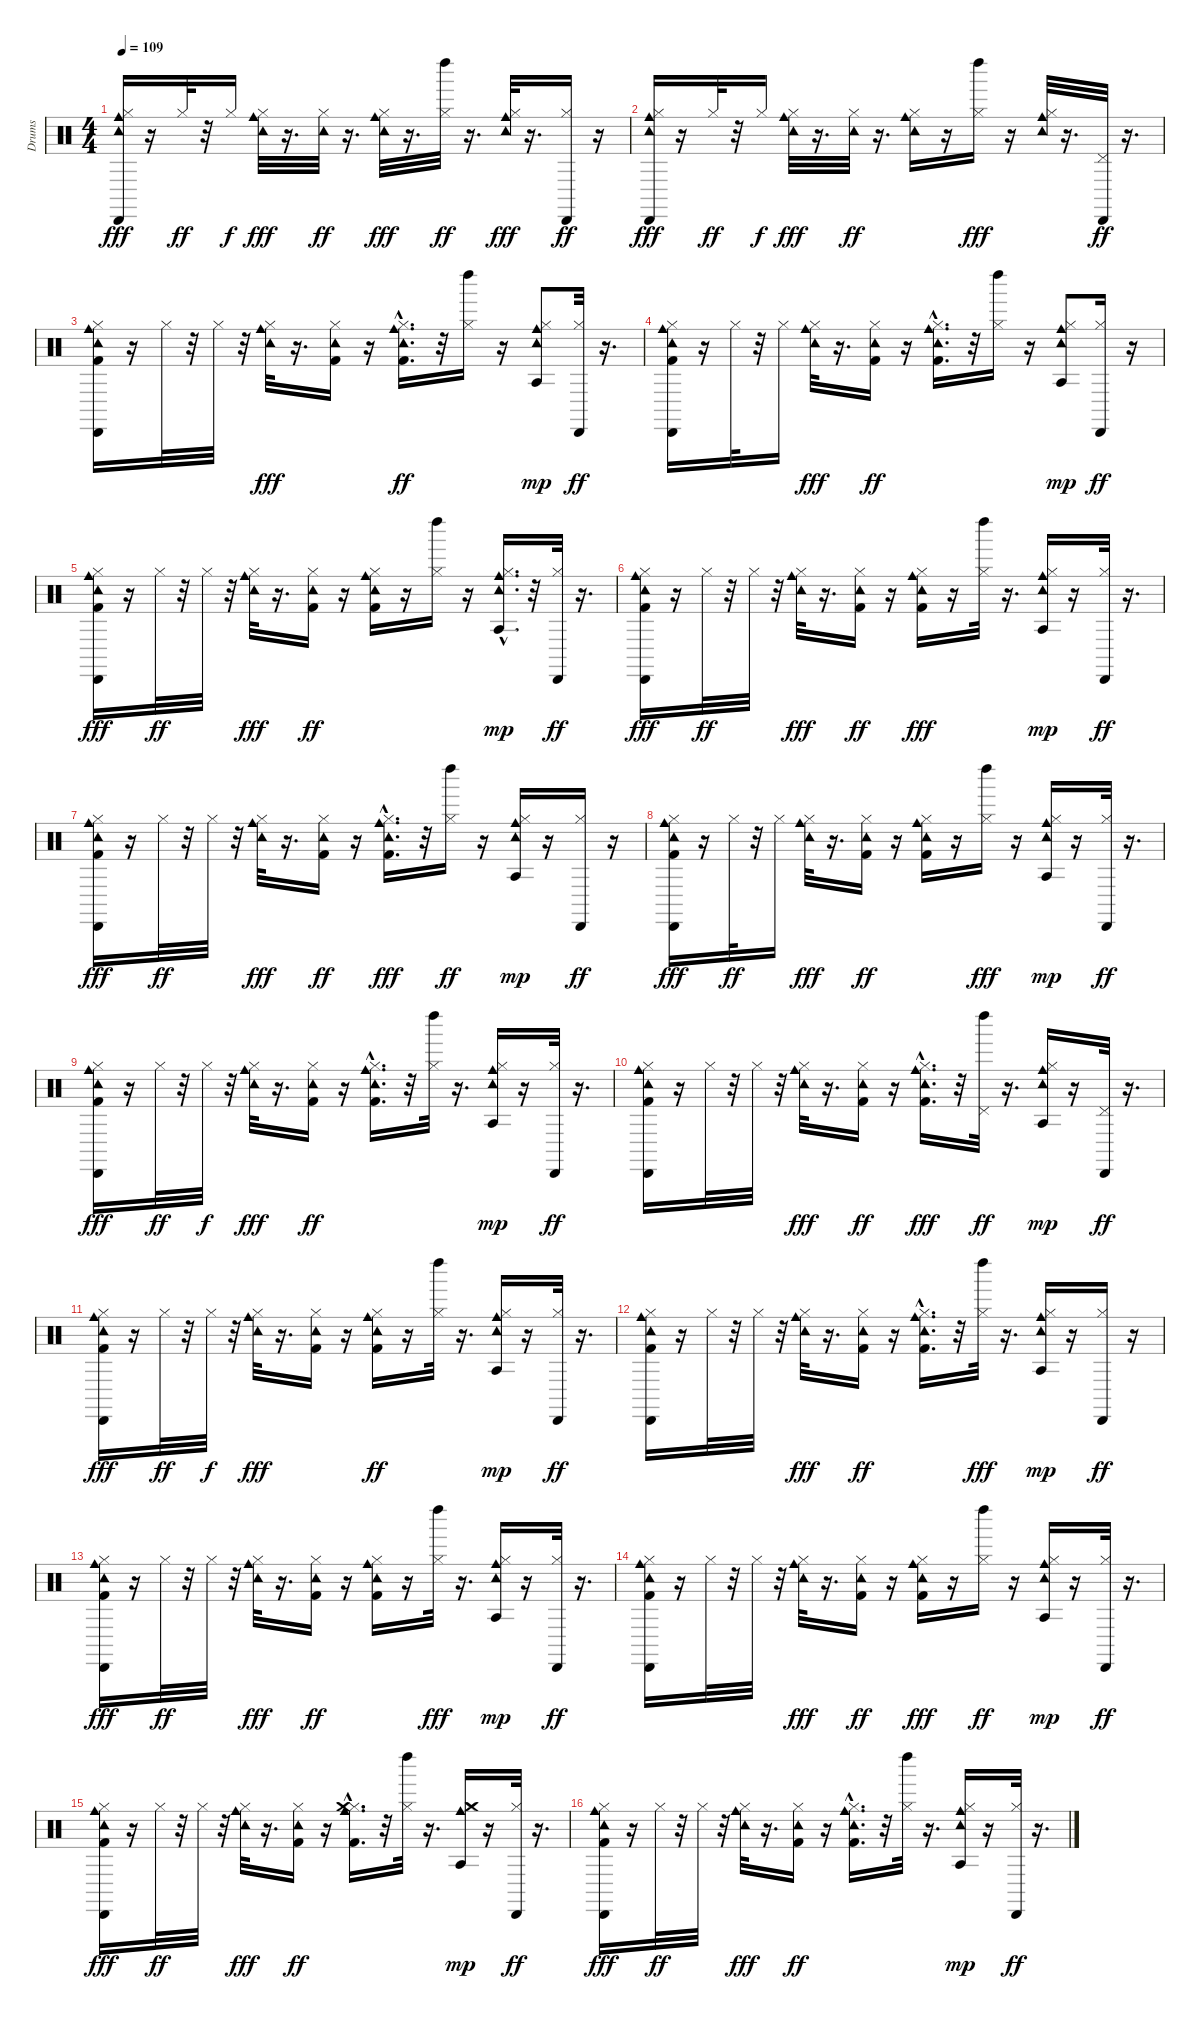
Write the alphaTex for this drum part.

\track ("Drums   " "Drums   ") {instrument percussion}
\staff {score}
\articulation defaults
\ts (4 4)
\tempo 109
\clef neutral
\ks c
("Hi-Hat (closed)" "Cowbell medium (hit)" "Tambourine (hit)" "Cabasa (hit)").16{dy fff} r.16 "Hi-Hat (closed)".32{dy ff} r.32 "Hi-Hat (closed)".16{dy f} ("Hi-Hat (closed)" "Tambourine (hit)" "Cowbell medium (hit)").32{dy fff} r.16{d} ("Hi-Hat (closed)" "Tambourine (hit)").32{dy ff} r.16{d} ("Hi-Hat (closed)" "Tambourine (hit)" "Cowbell medium (hit)").32{dy fff} r.16{d} ("Hi-Hat (closed)" "Left Maraca (hit)").32{dy ff} r.16{d} ("Hi-Hat (closed)" "Tambourine (hit)" "Cowbell medium (hit)").32{dy fff} r.16{d} ("Hi-Hat (closed)" "Cabasa (hit)").16{dy ff} r.16 |
("Hi-Hat (closed)" "Cowbell medium (hit)" "Tambourine (hit)" "Cabasa (hit)").16{dy fff} r.16 "Hi-Hat (closed)".32{dy ff} r.32 "Hi-Hat (closed)".16{dy f} ("Hi-Hat (closed)" "Tambourine (hit)" "Cowbell medium (hit)").32{dy fff} r.16{d} ("Hi-Hat (closed)" "Tambourine (hit)").32{dy ff} r.16{d} ("Hi-Hat (closed)" "Cowbell medium (hit)" "Tambourine (hit)").16 r.16 ("Hi-Hat (closed)" "Left Maraca (hit)").16{dy fff} r.16 ("Hi-Hat (closed)" "Tambourine (hit)" "Cowbell medium (hit)").32 r.16{d} ("Pedal Hi-Hat (hit)" "Cabasa (hit)").32{dy ff} r.16{d} |
("Kick (hit) 2" "Hi-Hat (closed)" "Cowbell medium (hit)" "Tambourine (hit)" "Cabasa (hit)").16 r.16 "Hi-Hat (closed)".32 r.32 "Hi-Hat (closed)".32 r.32 ("Hi-Hat (closed)" "Tambourine (hit)" "Cowbell medium (hit)").32{dy fff} r.16{d} ("Kick (hit) 2" "Hi-Hat (closed)" "Tambourine (hit)").16 r.16 ("Kick (hit) 2"{hac} "Cowbell medium (hit)"{hac} "Hi-Hat (closed)"{hac} "Tambourine (hit)"{hac}).16{d dy ff} r.32 ("Hi-Hat (closed)" "Left Maraca (hit)").16 r.16 ("Hi-Hat (closed)" "Tambourine (hit)" "Cowbell medium (hit)" "Agogo tow (hit)").8{dy mp} ("Hi-Hat (closed)" "Cabasa (hit)").32{dy ff} r.16{d} |
("Kick (hit) 2" "Hi-Hat (closed)" "Cowbell medium (hit)" "Tambourine (hit)" "Cabasa (hit)").16 r.16 "Hi-Hat (closed)".32 r.32 "Hi-Hat (closed)".16 ("Hi-Hat (closed)" "Tambourine (hit)" "Cowbell medium (hit)").32{dy fff} r.16{d} ("Kick (hit) 2" "Hi-Hat (closed)" "Tambourine (hit)").16{dy ff} r.16 ("Kick (hit) 2"{hac} "Hi-Hat (closed)"{hac} "Cowbell medium (hit)"{hac} "Tambourine (hit)"{hac}).16{d} r.32 ("Hi-Hat (closed)" "Left Maraca (hit)").16 r.16 ("Hi-Hat (closed)" "Tambourine (hit)" "Cowbell medium (hit)" "Agogo tow (hit)").8{dy mp} ("Hi-Hat (closed)" "Cabasa (hit)").16{dy ff} r.16 |
("Kick (hit) 2" "Cowbell medium (hit)" "Hi-Hat (closed)" "Tambourine (hit)" "Cabasa (hit)").16{dy fff} r.16 "Hi-Hat (closed)".32{dy ff} r.32 "Hi-Hat (closed)".32 r.32 ("Hi-Hat (closed)" "Tambourine (hit)" "Cowbell medium (hit)").32{dy fff} r.16{d} ("Kick (hit) 2" "Hi-Hat (closed)" "Tambourine (hit)").16{dy ff} r.16 ("Cowbell medium (hit)" "Kick (hit) 2" "Hi-Hat (closed)" "Tambourine (hit)").16 r.16 ("Hi-Hat (closed)" "Left Maraca (hit)").16 r.16 ("Hi-Hat (closed)"{hac} "Cowbell medium (hit)"{hac} "Tambourine (hit)"{hac} "Agogo tow (hit)"{hac}).16{d dy mp} r.32 ("Hi-Hat (closed)" "Cabasa (hit)").32{dy ff} r.16{d} |
("Kick (hit) 2" "Cowbell medium (hit)" "Hi-Hat (closed)" "Tambourine (hit)" "Cabasa (hit)").16{dy fff} r.16 "Hi-Hat (closed)".32{dy ff} r.32 "Hi-Hat (closed)".32 r.32 ("Hi-Hat (closed)" "Cowbell medium (hit)" "Tambourine (hit)").32{dy fff} r.16{d} ("Kick (hit) 2" "Hi-Hat (closed)" "Tambourine (hit)").16{dy ff} r.16 ("Cowbell medium (hit)" "Kick (hit) 2" "Hi-Hat (closed)" "Tambourine (hit)").16{dy fff} r.16 ("Hi-Hat (closed)" "Left Maraca (hit)").32 r.16{d} ("Hi-Hat (closed)" "Tambourine (hit)" "Cowbell medium (hit)" "Agogo tow (hit)").16{dy mp} r.16 ("Hi-Hat (closed)" "Cabasa (hit)").32{dy ff} r.16{d} |
("Cowbell medium (hit)" "Kick (hit) 2" "Hi-Hat (closed)" "Tambourine (hit)" "Cabasa (hit)").16{dy fff} r.16 "Hi-Hat (closed)".32{dy ff} r.32 "Hi-Hat (closed)".32 r.32 ("Hi-Hat (closed)" "Tambourine (hit)" "Cowbell medium (hit)").32{dy fff} r.16{d} ("Kick (hit) 2" "Hi-Hat (closed)" "Tambourine (hit)").16{dy ff} r.16 ("Kick (hit) 2"{hac} "Hi-Hat (closed)"{hac} "Cowbell medium (hit)"{hac} "Tambourine (hit)"{hac}).16{d dy fff} r.32 ("Hi-Hat (closed)" "Left Maraca (hit)").16{dy ff} r.16 ("Hi-Hat (closed)" "Tambourine (hit)" "Cowbell medium (hit)" "Agogo tow (hit)").16{dy mp} r.16 ("Hi-Hat (closed)" "Cabasa (hit)").16{dy ff} r.16 |
("Kick (hit) 2" "Cowbell medium (hit)" "Hi-Hat (closed)" "Tambourine (hit)" "Cabasa (hit)").16{dy fff} r.16 "Hi-Hat (closed)".32{dy ff} r.32 "Hi-Hat (closed)".16 ("Hi-Hat (closed)" "Tambourine (hit)" "Cowbell medium (hit)").32{dy fff} r.16{d} ("Kick (hit) 2" "Hi-Hat (closed)" "Tambourine (hit)").16{dy ff} r.16 ("Kick (hit) 2" "Cowbell medium (hit)" "Hi-Hat (closed)" "Tambourine (hit)").16 r.16 ("Hi-Hat (closed)" "Left Maraca (hit)").16{dy fff} r.16 ("Hi-Hat (closed)" "Tambourine (hit)" "Cowbell medium (hit)" "Agogo tow (hit)").16{dy mp} r.16 ("Hi-Hat (closed)" "Cabasa (hit)").32{dy ff} r.16{d} |
("Kick (hit) 2" "Cowbell medium (hit)" "Hi-Hat (closed)" "Tambourine (hit)" "Cabasa (hit)").16{dy fff} r.16 "Hi-Hat (closed)".32{dy ff} r.32 "Hi-Hat (closed)".32{dy f} r.32 ("Hi-Hat (closed)" "Tambourine (hit)" "Cowbell medium (hit)").32{dy fff} r.16{d} ("Kick (hit) 2" "Hi-Hat (closed)" "Tambourine (hit)").16{dy ff} r.16 ("Kick (hit) 2"{hac} "Cowbell medium (hit)"{hac} "Hi-Hat (closed)"{hac} "Tambourine (hit)"{hac}).16{d} r.32 ("Hi-Hat (closed)" "Left Maraca (hit)").32 r.16{d} ("Hi-Hat (closed)" "Tambourine (hit)" "Cowbell medium (hit)" "Agogo tow (hit)").16{dy mp} r.16 ("Hi-Hat (closed)" "Cabasa (hit)").32{dy ff} r.16{d} |
("Cowbell medium (hit)" "Kick (hit) 2" "Hi-Hat (closed)" "Tambourine (hit)" "Cabasa (hit)").16 r.16 "Hi-Hat (closed)".32 r.32 "Hi-Hat (closed)".32 r.32 ("Hi-Hat (closed)" "Tambourine (hit)" "Cowbell medium (hit)").32{dy fff} r.16{d} ("Kick (hit) 2" "Hi-Hat (closed)" "Tambourine (hit)").16{dy ff} r.16 ("Kick (hit) 2"{hac} "Hi-Hat (closed)"{hac} "Cowbell medium (hit)"{hac} "Tambourine (hit)"{hac}).16{d dy fff} r.32 ("Pedal Hi-Hat (hit)" "Left Maraca (hit)").32{dy ff} r.16{d} ("Hi-Hat (closed)" "Tambourine (hit)" "Cowbell medium (hit)" "Agogo tow (hit)").16{dy mp} r.16 ("Pedal Hi-Hat (hit)" "Cabasa (hit)").32{dy ff} r.16{d} |
("Kick (hit) 2" "Cowbell medium (hit)" "Hi-Hat (closed)" "Tambourine (hit)" "Cabasa (hit)").16{dy fff} r.16 "Hi-Hat (closed)".32{dy ff} r.32 "Hi-Hat (closed)".32{dy f} r.32 ("Hi-Hat (closed)" "Tambourine (hit)" "Cowbell medium (hit)").32{dy fff} r.16{d} ("Kick (hit) 2" "Hi-Hat (closed)" "Tambourine (hit)").16 r.16 ("Kick (hit) 2" "Cowbell medium (hit)" "Hi-Hat (closed)" "Tambourine (hit)").16{dy ff} r.16 ("Hi-Hat (closed)" "Left Maraca (hit)").32 r.16{d} ("Hi-Hat (closed)" "Tambourine (hit)" "Cowbell medium (hit)" "Agogo tow (hit)").16{dy mp} r.16 ("Hi-Hat (closed)" "Cabasa (hit)").32{dy ff} r.16{d} |
("Kick (hit) 2" "Cowbell medium (hit)" "Hi-Hat (closed)" "Tambourine (hit)" "Cabasa (hit)").16 r.16 "Hi-Hat (closed)".32 r.32 "Hi-Hat (closed)".32 r.32 ("Hi-Hat (closed)" "Tambourine (hit)" "Cowbell medium (hit)").32{dy fff} r.16{d} ("Kick (hit) 2" "Hi-Hat (closed)" "Tambourine (hit)").16{dy ff} r.16 ("Kick (hit) 2"{hac} "Cowbell medium (hit)"{hac} "Hi-Hat (closed)"{hac} "Tambourine (hit)"{hac}).16{d} r.32 ("Hi-Hat (closed)" "Left Maraca (hit)").32{dy fff} r.16{d} ("Hi-Hat (closed)" "Tambourine (hit)" "Cowbell medium (hit)" "Agogo tow (hit)").16{dy mp} r.16 ("Hi-Hat (closed)" "Cabasa (hit)").16{dy ff} r.16 |
("Kick (hit) 2" "Hi-Hat (closed)" "Tambourine (hit)" "Cowbell medium (hit)" "Cabasa (hit)").16{dy fff} r.16 "Hi-Hat (closed)".32{dy ff} r.32 "Hi-Hat (closed)".32 r.32 ("Hi-Hat (closed)" "Cowbell medium (hit)" "Tambourine (hit)").32{dy fff} r.16{d} ("Kick (hit) 2" "Hi-Hat (closed)" "Tambourine (hit)").16{dy ff} r.16 ("Cowbell medium (hit)" "Kick (hit) 2" "Hi-Hat (closed)" "Tambourine (hit)").16 r.16 ("Hi-Hat (closed)" "Left Maraca (hit)").32{dy fff} r.16{d} ("Hi-Hat (closed)" "Cowbell medium (hit)" "Tambourine (hit)" "Agogo tow (hit)").16{dy mp} r.16 ("Hi-Hat (closed)" "Cabasa (hit)").32{dy ff} r.16{d} |
("Kick (hit) 2" "Hi-Hat (closed)" "Tambourine (hit)" "Cowbell medium (hit)" "Cabasa (hit)").16 r.16 "Hi-Hat (closed)".32 r.32 "Hi-Hat (closed)".32 r.32 ("Hi-Hat (closed)" "Cowbell medium (hit)" "Tambourine (hit)").32{dy fff} r.16{d} ("Kick (hit) 2" "Hi-Hat (closed)" "Tambourine (hit)").16{dy ff} r.16 ("Kick (hit) 2" "Hi-Hat (closed)" "Tambourine (hit)" "Cowbell medium (hit)").16{dy fff} r.16 ("Hi-Hat (closed)" "Left Maraca (hit)").16{dy ff} r.16 ("Hi-Hat (closed)" "Tambourine (hit)" "Cowbell medium (hit)" "Agogo tow (hit)").16{dy mp} r.16 ("Hi-Hat (closed)" "Cabasa (hit)").32{dy ff} r.16{d} |
("Cowbell medium (hit)" "Kick (hit) 2" "Hi-Hat (closed)" "Tambourine (hit)" "Cabasa (hit)").16{dy fff} r.16 "Hi-Hat (closed)".32{dy ff} r.32 "Hi-Hat (closed)".32 r.32 ("Tambourine (hit)" "Hi-Hat (closed)" "Cowbell medium (hit)").32{dy fff} r.16{d} ("Kick (hit) 2" "Hi-Hat (closed)" "Tambourine (hit)").16{dy ff} r.16 ("Kick (hit) 2"{hac} "Cowbell medium (hit)"{hac} "Hi-Hat (closed)"{hac} "Crash medium (hit)"{hac}).16{d} r.32 ("Hi-Hat (closed)" "Left Maraca (hit)").32 r.16{d} ("Hi-Hat (closed)" "Cowbell medium (hit)" "Crash medium (hit)" "Agogo tow (hit)").16{dy mp} r.16 ("Hi-Hat (closed)" "Cabasa (hit)").32{dy ff} r.16{d} |
("Cowbell medium (hit)" "Kick (hit) 2" "Hi-Hat (closed)" "Tambourine (hit)" "Cabasa (hit)").16{dy fff} r.16 "Hi-Hat (closed)".32{dy ff} r.32 "Hi-Hat (closed)".32 r.32 ("Hi-Hat (closed)" "Tambourine (hit)" "Cowbell medium (hit)").32{dy fff} r.16{d} ("Kick (hit) 2" "Hi-Hat (closed)" "Tambourine (hit)").16{dy ff} r.16 ("Kick (hit) 2"{hac} "Cowbell medium (hit)"{hac} "Hi-Hat (closed)"{hac} "Tambourine (hit)"{hac}).16{d} r.32 ("Hi-Hat (closed)" "Left Maraca (hit)").32 r.16{d} ("Hi-Hat (closed)" "Tambourine (hit)" "Cowbell medium (hit)" "Agogo tow (hit)").16{dy mp} r.16 ("Hi-Hat (closed)" "Cabasa (hit)").32{dy ff} r.16{d}
